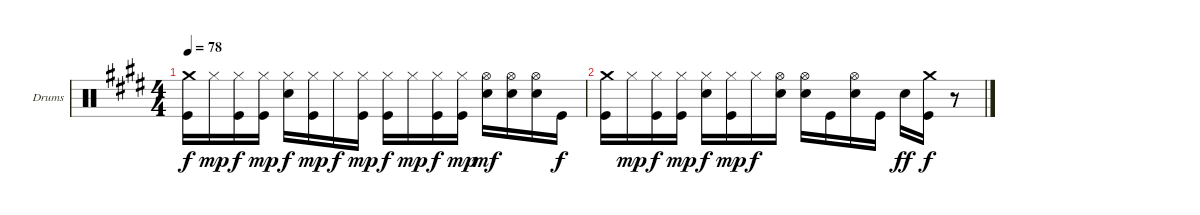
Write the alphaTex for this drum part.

\bracketExtendMode groupsimilarinstruments
\firstSystemTrackNameOrientation horizontal
\otherSystemsTrackNameOrientation horizontal
\track ("Drumkit" "Drums") {instrument percussion}
\staff {score}
\articulation defaults
\ts (4 4)
\tempo 78
\clef neutral
\ks c#minor
("Crash medium (hit)" "Kick (hit)").16{dy f} "Hi-Hat (closed)".16{dy mp} ("Hi-Hat (closed)" "Kick (hit)").16{dy f} ("Hi-Hat (closed)" "Kick (hit)").16{dy mp} ("Hi-Hat (closed)" "Snare (hit) 2").16{dy f} ("Hi-Hat (closed)" "Kick (hit)").16{dy mp} "Hi-Hat (closed)".16{dy f} ("Hi-Hat (closed)" "Kick (hit)").16{dy mp} ("Hi-Hat (closed)" "Kick (hit)").16{dy f} "Hi-Hat (closed)".16{dy mp} ("Hi-Hat (closed)" "Kick (hit)").16{dy f} ("Hi-Hat (closed)" "Kick (hit)").16{dy mp} ("Hi-Hat (open)" "Snare (hit) 2").16{dy mf} ("Hi-Hat (open)" "Snare (hit) 2").16 ("Hi-Hat (open)" "Snare (hit) 2").16 "Kick (hit)".16{dy f} |
("Crash medium (hit)" "Kick (hit)").16 "Hi-Hat (closed)".16{dy mp} ("Hi-Hat (closed)" "Kick (hit)").16{dy f} ("Hi-Hat (closed)" "Kick (hit)").16{dy mp} ("Hi-Hat (closed)" "Snare (hit) 2").16{dy f} ("Hi-Hat (closed)" "Kick (hit)").16{dy mp} "Hi-Hat (closed)".16{dy f} ("Hi-Hat (open)" "Snare (hit) 2").16 ("Hi-Hat (open)" "Snare (hit) 2").16 "Kick (hit)".16 ("Hi-Hat (open)" "Snare (hit) 2").16 "Kick (hit)".16 "Snare (hit) 2".16{dy ff} ("Crash medium (hit)" "Kick (hit)").16{dy f} r.8
